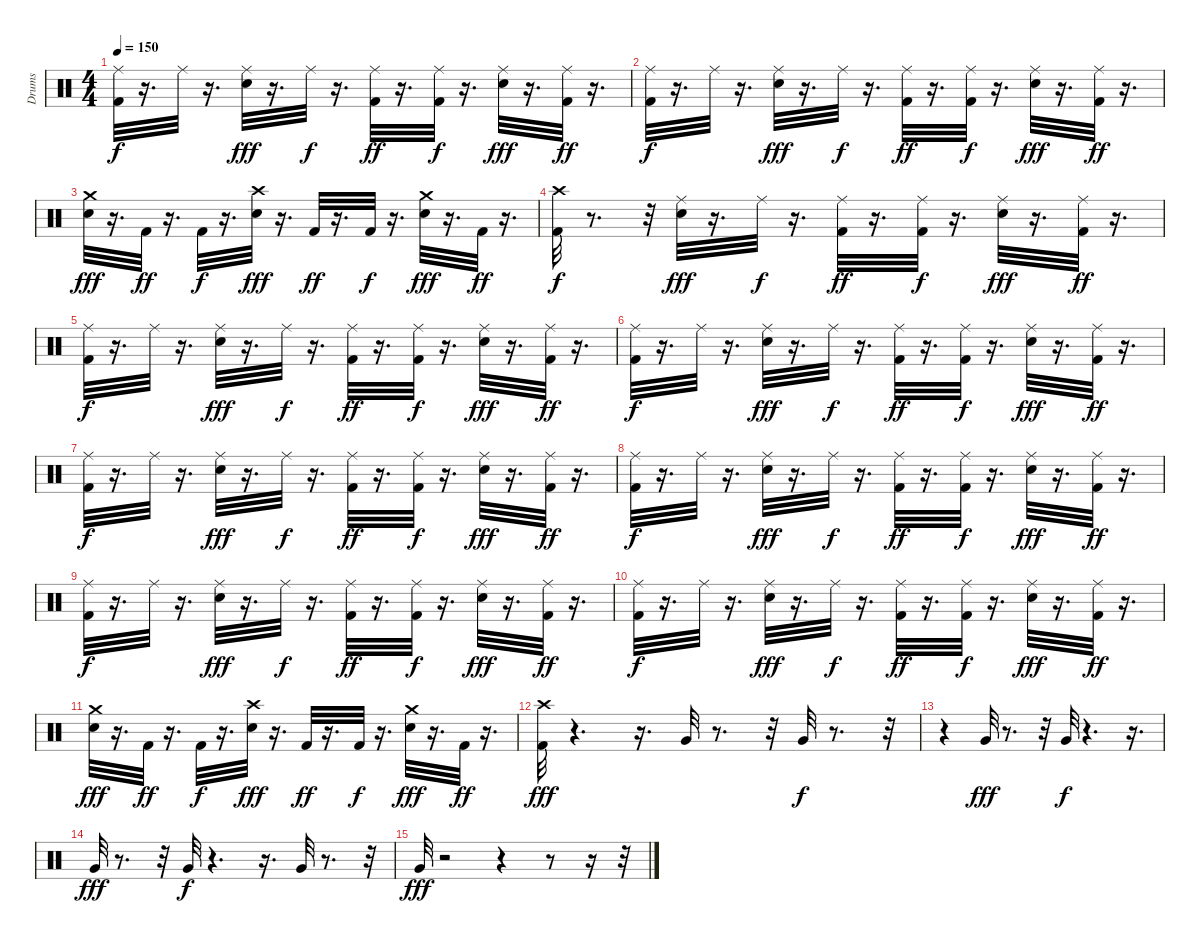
\track ("Drums" "Drums") {instrument percussion}
\staff {score}
\articulation defaults
\ts (4 4)
\tempo 150
\clef neutral
\ks c
("Kick (hit) 2" "Ride (middle)").32{dy f} r.16{d} "Ride (middle)".32 r.16{d} ("Snare (hit) 2" "Ride (middle)").32{dy fff} r.16{d} "Ride (middle)".32{dy f} r.16{d} ("Kick (hit) 2" "Ride (middle)").32{dy ff} r.16{d} ("Kick (hit) 2" "Ride (middle)").32{dy f} r.16{d} ("Snare (hit) 2" "Ride (middle)").32{dy fff} r.16{d} ("Kick (hit) 2" "Ride (middle)").32{dy ff} r.16{d} |
("Kick (hit) 2" "Ride (middle)").32{dy f} r.16{d} "Ride (middle)".32 r.16{d} ("Snare (hit) 2" "Ride (middle)").32{dy fff} r.16{d} "Ride (middle)".32{dy f} r.16{d} ("Kick (hit) 2" "Ride (middle)").32{dy ff} r.16{d} ("Kick (hit) 2" "Ride (middle)").32{dy f} r.16{d} ("Snare (hit) 2" "Ride (middle)").32{dy fff} r.16{d} ("Kick (hit) 2" "Ride (middle)").32{dy ff} r.16{d} |
("Snare (hit) 2" "Crash medium (hit)").32{dy fff} r.16{d} "Kick (hit) 2".32{dy ff} r.16{d} "Kick (hit) 2".32{dy f} r.16{d} ("Snare (hit) 2" "Crash high (hit)").32{dy fff} r.16{d} "Kick (hit) 2".32{dy ff} r.16{d} "Kick (hit) 2".32{dy f} r.16{d} ("Snare (hit) 2" "Crash medium (hit)").32{dy fff} r.16{d} "Kick (hit) 2".32{dy ff} r.16{d} |
("Crash high (hit)" "Kick (hit) 2").32{dy f} r.8{d} r.32 ("Snare (hit) 2" "Ride (middle)").32{dy fff} r.16{d} "Ride (middle)".32{dy f} r.16{d} ("Kick (hit) 2" "Ride (middle)").32{dy ff} r.16{d} ("Kick (hit) 2" "Ride (middle)").32{dy f} r.16{d} ("Snare (hit) 2" "Ride (middle)").32{dy fff} r.16{d} ("Kick (hit) 2" "Ride (middle)").32{dy ff} r.16{d} |
("Kick (hit) 2" "Ride (middle)").32{dy f} r.16{d} "Ride (middle)".32 r.16{d} ("Snare (hit) 2" "Ride (middle)").32{dy fff} r.16{d} "Ride (middle)".32{dy f} r.16{d} ("Kick (hit) 2" "Ride (middle)").32{dy ff} r.16{d} ("Kick (hit) 2" "Ride (middle)").32{dy f} r.16{d} ("Snare (hit) 2" "Ride (middle)").32{dy fff} r.16{d} ("Kick (hit) 2" "Ride (middle)").32{dy ff} r.16{d} |
("Kick (hit) 2" "Ride (middle)").32{dy f} r.16{d} "Ride (middle)".32 r.16{d} ("Snare (hit) 2" "Ride (middle)").32{dy fff} r.16{d} "Ride (middle)".32{dy f} r.16{d} ("Kick (hit) 2" "Ride (middle)").32{dy ff} r.16{d} ("Kick (hit) 2" "Ride (middle)").32{dy f} r.16{d} ("Snare (hit) 2" "Ride (middle)").32{dy fff} r.16{d} ("Kick (hit) 2" "Ride (middle)").32{dy ff} r.16{d} |
("Kick (hit) 2" "Ride (middle)").32{dy f} r.16{d} "Ride (middle)".32 r.16{d} ("Snare (hit) 2" "Ride (middle)").32{dy fff} r.16{d} "Ride (middle)".32{dy f} r.16{d} ("Kick (hit) 2" "Ride (middle)").32{dy ff} r.16{d} ("Kick (hit) 2" "Ride (middle)").32{dy f} r.16{d} ("Snare (hit) 2" "Ride (middle)").32{dy fff} r.16{d} ("Kick (hit) 2" "Ride (middle)").32{dy ff} r.16{d} |
("Kick (hit) 2" "Ride (middle)").32{dy f} r.16{d} "Ride (middle)".32 r.16{d} ("Snare (hit) 2" "Ride (middle)").32{dy fff} r.16{d} "Ride (middle)".32{dy f} r.16{d} ("Kick (hit) 2" "Ride (middle)").32{dy ff} r.16{d} ("Kick (hit) 2" "Ride (middle)").32{dy f} r.16{d} ("Snare (hit) 2" "Ride (middle)").32{dy fff} r.16{d} ("Kick (hit) 2" "Ride (middle)").32{dy ff} r.16{d} |
("Kick (hit) 2" "Ride (middle)").32{dy f} r.16{d} "Ride (middle)".32 r.16{d} ("Snare (hit) 2" "Ride (middle)").32{dy fff} r.16{d} "Ride (middle)".32{dy f} r.16{d} ("Kick (hit) 2" "Ride (middle)").32{dy ff} r.16{d} ("Kick (hit) 2" "Ride (middle)").32{dy f} r.16{d} ("Snare (hit) 2" "Ride (middle)").32{dy fff} r.16{d} ("Kick (hit) 2" "Ride (middle)").32{dy ff} r.16{d} |
("Kick (hit) 2" "Ride (middle)").32{dy f} r.16{d} "Ride (middle)".32 r.16{d} ("Snare (hit) 2" "Ride (middle)").32{dy fff} r.16{d} "Ride (middle)".32{dy f} r.16{d} ("Kick (hit) 2" "Ride (middle)").32{dy ff} r.16{d} ("Kick (hit) 2" "Ride (middle)").32{dy f} r.16{d} ("Snare (hit) 2" "Ride (middle)").32{dy fff} r.16{d} ("Kick (hit) 2" "Ride (middle)").32{dy ff} r.16{d} |
("Snare (hit) 2" "Crash medium (hit)").32{dy fff} r.16{d} "Kick (hit) 2".32{dy ff} r.16{d} "Kick (hit) 2".32{dy f} r.16{d} ("Snare (hit) 2" "Crash high (hit)").32{dy fff} r.16{d} "Kick (hit) 2".32{dy ff} r.16{d} "Kick (hit) 2".32{dy f} r.16{d} ("Snare (hit) 2" "Crash medium (hit)").32{dy fff} r.16{d} "Kick (hit) 2".32{dy ff} r.16{d} |
("Kick (hit) 2" "Crash high (hit)").32{dy fff} r.4{d} r.16{d} "Very Low Tom (hit)".32 r.8{d} r.32 "Very Low Tom (hit)".32{dy f} r.8{d} r.32 |
r.4 "Very Low Tom (hit)".32{dy fff} r.8{d} r.32 "Very Low Tom (hit)".32{dy f} r.4{d} r.16{d} |
"Very Low Tom (hit)".32{dy fff} r.8{d} r.32 "Very Low Tom (hit)".32{dy f} r.4{d} r.16{d} "Very Low Tom (hit)".32 r.8{d} r.32 |
"Very Low Tom (hit)".32{dy fff} r.2 r.4 r.8 r.16 r.32
